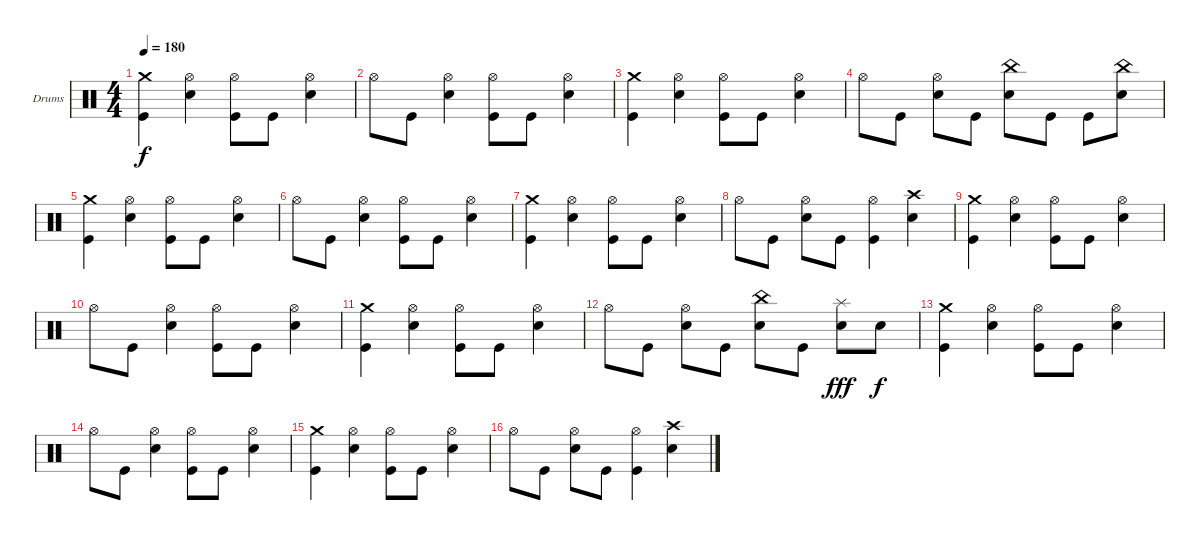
\defaultSystemsLayout 4
\bracketExtendMode groupsimilarinstruments
\firstSystemTrackNameOrientation horizontal
\otherSystemsTrackNameOrientation horizontal
\track ("Барабаны" "Drums") {instrument percussion}
\staff {score}
\articulation defaults
\ts (4 4)
\tempo 180
\clef neutral
\ks c
("Crash medium (hit)" "Kick (hit)").4{dy f} ("Hi-Hat (open)" "Snare (hit) 2").4 ("Hi-Hat (open)" "Kick (hit)").8 "Kick (hit)".8 ("Hi-Hat (open)" "Snare (hit) 2").4 |
"Hi-Hat (open)".8 "Kick (hit)".8 ("Hi-Hat (open)" "Snare (hit) 2").4 ("Hi-Hat (open)" "Kick (hit)").8 "Kick (hit)".8 ("Hi-Hat (open)" "Snare (hit) 2").4 |
("Crash medium (hit)" "Kick (hit)").4 ("Hi-Hat (open)" "Snare (hit) 2").4 ("Hi-Hat (open)" "Kick (hit)").8 "Kick (hit)".8 ("Hi-Hat (open)" "Snare (hit) 2").4 |
"Hi-Hat (open)".8 "Kick (hit)".8 ("Hi-Hat (open)" "Snare (hit) 2").8 "Kick (hit)".8 ("China (hit)" "Snare (hit) 2").8 "Kick (hit)".8 "Kick (hit)".8 ("China (hit)" "Snare (hit) 2").8 |
("Crash medium (hit)" "Kick (hit)").4 ("Hi-Hat (open)" "Snare (hit) 2").4 ("Hi-Hat (open)" "Kick (hit)").8 "Kick (hit)".8 ("Hi-Hat (open)" "Snare (hit) 2").4 |
"Hi-Hat (open)".8 "Kick (hit)".8 ("Hi-Hat (open)" "Snare (hit) 2").4 ("Hi-Hat (open)" "Kick (hit)").8 "Kick (hit)".8 ("Hi-Hat (open)" "Snare (hit) 2").4 |
("Crash medium (hit)" "Kick (hit)").4 ("Hi-Hat (open)" "Snare (hit) 2").4 ("Hi-Hat (open)" "Kick (hit)").8 "Kick (hit)".8 ("Hi-Hat (open)" "Snare (hit) 2").4 |
"Hi-Hat (open)".8 "Kick (hit)".8 ("Hi-Hat (open)" "Snare (hit) 2").8 "Kick (hit)".8 ("Hi-Hat (open)" "Kick (hit)").4 ("Crash high (hit)" "Snare (hit) 2").4 |
("Crash medium (hit)" "Kick (hit)").4 ("Hi-Hat (open)" "Snare (hit) 2").4 ("Hi-Hat (open)" "Kick (hit)").8 "Kick (hit)".8 ("Hi-Hat (open)" "Snare (hit) 2").4 |
"Hi-Hat (open)".8 "Kick (hit)".8 ("Hi-Hat (open)" "Snare (hit) 2").4 ("Hi-Hat (open)" "Kick (hit)").8 "Kick (hit)".8 ("Hi-Hat (open)" "Snare (hit) 2").4 |
("Crash medium (hit)" "Kick (hit)").4 ("Hi-Hat (open)" "Snare (hit) 2").4 ("Hi-Hat (open)" "Kick (hit)").8 "Kick (hit)".8 ("Hi-Hat (open)" "Snare (hit) 2").4 |
"Hi-Hat (open)".8 "Kick (hit)".8 ("Hi-Hat (open)" "Snare (hit) 2").8 "Kick (hit)".8 ("China (hit)" "Snare (hit) 2").8 "Kick (hit)".8 ("Splash (hit)" "Snare (hit) 2").8{dy fff} "Snare (hit) 2".8{dy f} |
("Crash medium (hit)" "Kick (hit)").4 ("Hi-Hat (open)" "Snare (hit) 2").4 ("Hi-Hat (open)" "Kick (hit)").8 "Kick (hit)".8 ("Hi-Hat (open)" "Snare (hit) 2").4 |
"Hi-Hat (open)".8 "Kick (hit)".8 ("Hi-Hat (open)" "Snare (hit) 2").4 ("Hi-Hat (open)" "Kick (hit)").8 "Kick (hit)".8 ("Hi-Hat (open)" "Snare (hit) 2").4 |
("Crash medium (hit)" "Kick (hit)").4 ("Hi-Hat (open)" "Snare (hit) 2").4 ("Hi-Hat (open)" "Kick (hit)").8 "Kick (hit)".8 ("Hi-Hat (open)" "Snare (hit) 2").4 |
"Hi-Hat (open)".8 "Kick (hit)".8 ("Hi-Hat (open)" "Snare (hit) 2").8 "Kick (hit)".8 ("Hi-Hat (open)" "Kick (hit)").4 ("Crash high (hit)" "Snare (hit) 2").4
